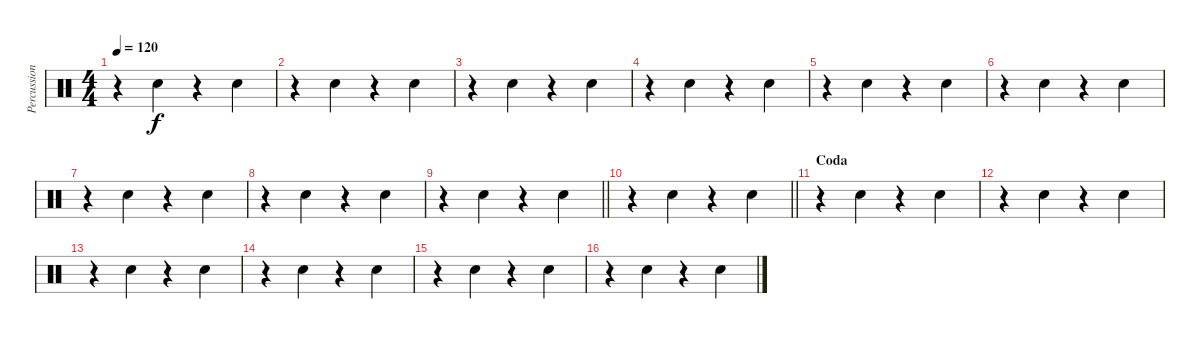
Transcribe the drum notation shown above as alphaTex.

\track ("Percussion" "Percussion") {instrument percussion}
\staff {score}
\articulation defaults
\ts (4 4)
\tempo 120
\clef neutral
\ks c
r.4{dy f} "Snare (hit) 2".4 r.4 "Snare (hit) 2".4 |
r.4 "Snare (hit) 2".4 r.4 "Snare (hit) 2".4 |
r.4 "Snare (hit) 2".4 r.4 "Snare (hit) 2".4 |
r.4 "Snare (hit) 2".4 r.4 "Snare (hit) 2".4 |
r.4 "Snare (hit) 2".4 r.4 "Snare (hit) 2".4 |
r.4 "Snare (hit) 2".4 r.4 "Snare (hit) 2".4 |
r.4 "Snare (hit) 2".4 r.4 "Snare (hit) 2".4 |
r.4 "Snare (hit) 2".4 r.4 "Snare (hit) 2".4 |
\barLineRight lightlight
r.4 "Snare (hit) 2".4 r.4 "Snare (hit) 2".4 |
\barLineRight lightlight
r.4 "Snare (hit) 2".4 r.4 "Snare (hit) 2".4 |
\section ("" "Coda")
r.4 "Snare (hit) 2".4 r.4 "Snare (hit) 2".4 |
r.4 "Snare (hit) 2".4 r.4 "Snare (hit) 2".4 |
r.4 "Snare (hit) 2".4 r.4 "Snare (hit) 2".4 |
r.4 "Snare (hit) 2".4 r.4 "Snare (hit) 2".4 |
r.4 "Snare (hit) 2".4 r.4 "Snare (hit) 2".4 |
r.4 "Snare (hit) 2".4 r.4 "Snare (hit) 2".4
